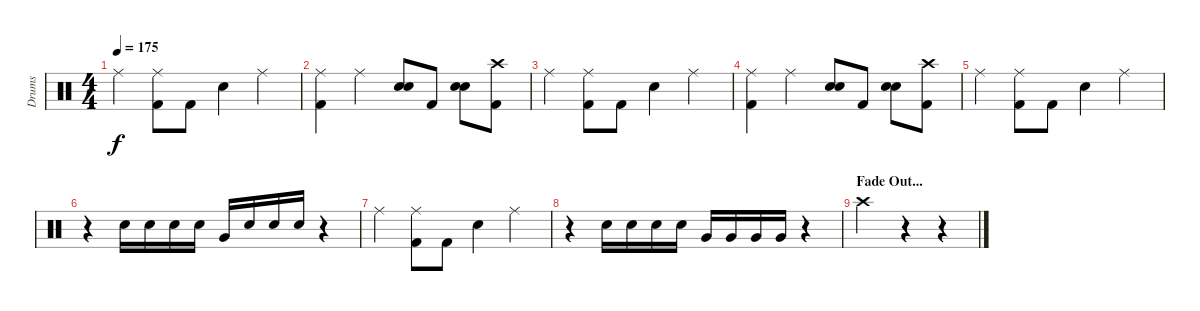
\track ("Drums" "Drums") {instrument percussion}
\staff {score}
\articulation defaults
\ts (4 4)
\tempo 175
\clef neutral
\ks c "Ride (middle)".4{dy f}
("Ride (middle)" "Kick (hit) 2").8 "Kick (hit) 2".8 "Snare (hit) 2".4 "Ride (middle)".4 |
("Ride (middle)" "Kick (hit) 2").4 "Ride (middle)".4 ("Snare (hit) 2" "Snare (hit) 2").8 "Kick (hit) 2".8 ("Snare (hit) 2" "Snare (hit) 2").8 ("Crash high (hit)" "Kick (hit) 2").8 |
"Ride (middle)".4 ("Ride (middle)" "Kick (hit) 2").8 "Kick (hit) 2".8 "Snare (hit) 2".4 "Ride (middle)".4 |
("Ride (middle)" "Kick (hit) 2").4 "Ride (middle)".4 ("Snare (hit) 2" "Snare (hit) 2").8 "Kick (hit) 2".8 ("Snare (hit) 2" "Snare (hit) 2").8 ("Crash high (hit)" "Kick (hit) 2").8 |
"Ride (middle)".4 ("Ride (middle)" "Kick (hit) 2").8 "Kick (hit) 2".8 "Snare (hit) 2".4 "Ride (middle)".4 |
r.4 "Snare (hit) 2".16 "Snare (hit) 2".16 "Snare (hit) 2".16 "Snare (hit) 2".16 "Very Low Tom (hit)".16 "Snare (hit) 2".16 "Snare (hit) 2".16 "Snare (hit) 2".16 r.4 |
"Ride (middle)".4 ("Ride (middle)" "Kick (hit) 2").8 "Kick (hit) 2".8 "Snare (hit) 2".4 "Ride (middle)".4 |
r.4 "Snare (hit) 2".16 "Snare (hit) 2".16 "Snare (hit) 2".16 "Snare (hit) 2".16 "Very Low Tom (hit)".16 "Very Low Tom (hit)".16 "Very Low Tom (hit)".16 "Very Low Tom (hit)".16 r.4 |
\section ("" "Fade Out...")
"Crash high (hit)".2 r.4 r.4
